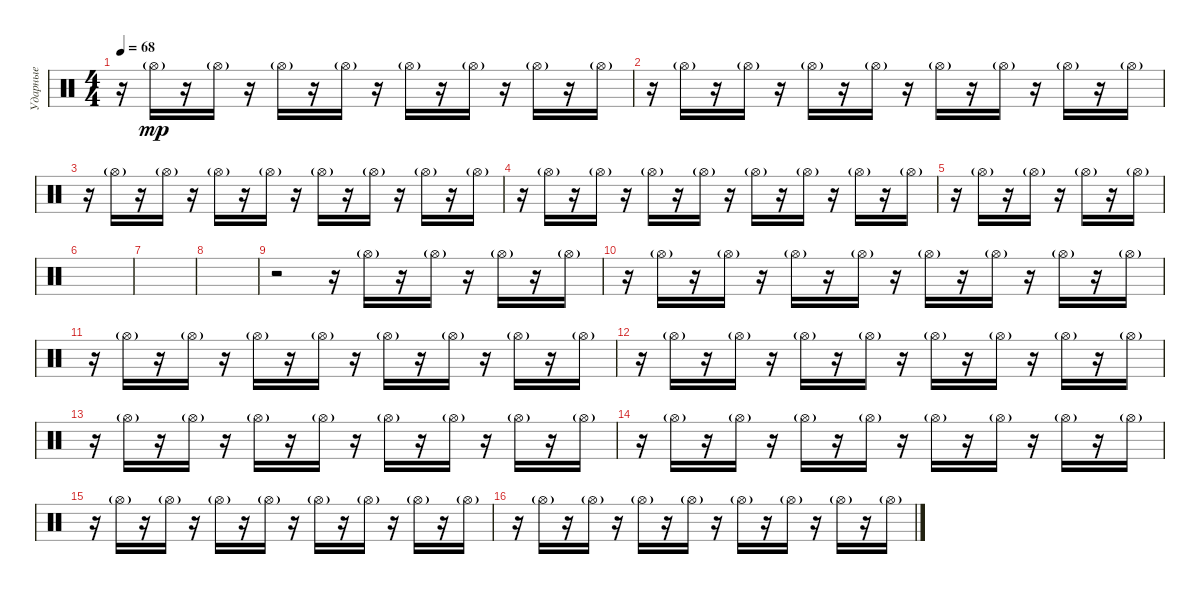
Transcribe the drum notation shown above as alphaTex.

\track ("Ударные" "Ударные") {instrument percussion}
\staff {score}
\articulation defaults
\ts (4 4)
\tempo 68
\clef neutral
\ks c
r.16{dy mp} "Hi-Hat (open)"{g}.16 r.16 "Hi-Hat (open)"{g}.16 r.16 "Hi-Hat (open)"{g}.16 r.16 "Hi-Hat (open)"{g}.16 r.16 "Hi-Hat (open)"{g}.16 r.16 "Hi-Hat (open)"{g}.16 r.16 "Hi-Hat (open)"{g}.16 r.16 "Hi-Hat (open)"{g}.16 |
r.16 "Hi-Hat (open)"{g}.16 r.16 "Hi-Hat (open)"{g}.16 r.16 "Hi-Hat (open)"{g}.16 r.16 "Hi-Hat (open)"{g}.16 r.16 "Hi-Hat (open)"{g}.16 r.16 "Hi-Hat (open)"{g}.16 r.16 "Hi-Hat (open)"{g}.16 r.16 "Hi-Hat (open)"{g}.16 |
r.16 "Hi-Hat (open)"{g}.16 r.16 "Hi-Hat (open)"{g}.16 r.16 "Hi-Hat (open)"{g}.16 r.16 "Hi-Hat (open)"{g}.16 r.16 "Hi-Hat (open)"{g}.16 r.16 "Hi-Hat (open)"{g}.16 r.16 "Hi-Hat (open)"{g}.16 r.16 "Hi-Hat (open)"{g}.16 |
r.16 "Hi-Hat (open)"{g}.16 r.16 "Hi-Hat (open)"{g}.16 r.16 "Hi-Hat (open)"{g}.16 r.16 "Hi-Hat (open)"{g}.16 r.16 "Hi-Hat (open)"{g}.16 r.16 "Hi-Hat (open)"{g}.16 r.16 "Hi-Hat (open)"{g}.16 r.16 "Hi-Hat (open)"{g}.16 |
r.16 "Hi-Hat (open)"{g}.16 r.16 "Hi-Hat (open)"{g}.16 r.16 "Hi-Hat (open)"{g}.16 r.16 "Hi-Hat (open)"{g}.16 |
|
|
|
r.2 r.16 "Hi-Hat (open)"{g}.16 r.16 "Hi-Hat (open)"{g}.16 r.16 "Hi-Hat (open)"{g}.16 r.16 "Hi-Hat (open)"{g}.16 |
r.16 "Hi-Hat (open)"{g}.16 r.16 "Hi-Hat (open)"{g}.16 r.16 "Hi-Hat (open)"{g}.16 r.16 "Hi-Hat (open)"{g}.16 r.16 "Hi-Hat (open)"{g}.16 r.16 "Hi-Hat (open)"{g}.16 r.16 "Hi-Hat (open)"{g}.16 r.16 "Hi-Hat (open)"{g}.16 |
r.16 "Hi-Hat (open)"{g}.16 r.16 "Hi-Hat (open)"{g}.16 r.16 "Hi-Hat (open)"{g}.16 r.16 "Hi-Hat (open)"{g}.16 r.16 "Hi-Hat (open)"{g}.16 r.16 "Hi-Hat (open)"{g}.16 r.16 "Hi-Hat (open)"{g}.16 r.16 "Hi-Hat (open)"{g}.16 |
r.16 "Hi-Hat (open)"{g}.16 r.16 "Hi-Hat (open)"{g}.16 r.16 "Hi-Hat (open)"{g}.16 r.16 "Hi-Hat (open)"{g}.16 r.16 "Hi-Hat (open)"{g}.16 r.16 "Hi-Hat (open)"{g}.16 r.16 "Hi-Hat (open)"{g}.16 r.16 "Hi-Hat (open)"{g}.16 |
r.16 "Hi-Hat (open)"{g}.16 r.16 "Hi-Hat (open)"{g}.16 r.16 "Hi-Hat (open)"{g}.16 r.16 "Hi-Hat (open)"{g}.16 r.16 "Hi-Hat (open)"{g}.16 r.16 "Hi-Hat (open)"{g}.16 r.16 "Hi-Hat (open)"{g}.16 r.16 "Hi-Hat (open)"{g}.16 |
r.16 "Hi-Hat (open)"{g}.16 r.16 "Hi-Hat (open)"{g}.16 r.16 "Hi-Hat (open)"{g}.16 r.16 "Hi-Hat (open)"{g}.16 r.16 "Hi-Hat (open)"{g}.16 r.16 "Hi-Hat (open)"{g}.16 r.16 "Hi-Hat (open)"{g}.16 r.16 "Hi-Hat (open)"{g}.16 |
r.16 "Hi-Hat (open)"{g}.16 r.16 "Hi-Hat (open)"{g}.16 r.16 "Hi-Hat (open)"{g}.16 r.16 "Hi-Hat (open)"{g}.16 r.16 "Hi-Hat (open)"{g}.16 r.16 "Hi-Hat (open)"{g}.16 r.16 "Hi-Hat (open)"{g}.16 r.16 "Hi-Hat (open)"{g}.16 |
r.16 "Hi-Hat (open)"{g}.16 r.16 "Hi-Hat (open)"{g}.16 r.16 "Hi-Hat (open)"{g}.16 r.16 "Hi-Hat (open)"{g}.16 r.16 "Hi-Hat (open)"{g}.16 r.16 "Hi-Hat (open)"{g}.16 r.16 "Hi-Hat (open)"{g}.16 r.16 "Hi-Hat (open)"{g}.16
